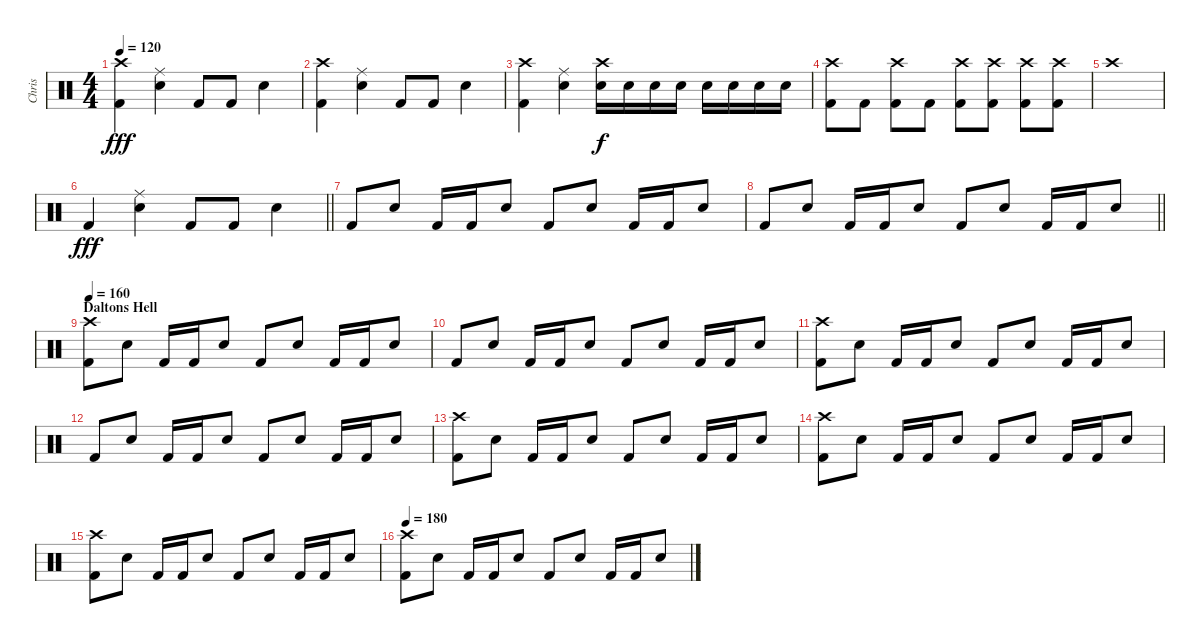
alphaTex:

\track ("Chris" "Chris") {instrument percussion}
\staff {score}
\articulation defaults
\ts (4 4)
\tempo 120
\clef neutral
\ks c
("Crash high (hit)" "Kick (hit) 2").4{dy fff} ("Ride (middle)" "Electric Snare (hit)").4 "Kick (hit) 2".8 "Kick (hit) 2".8 "Electric Snare (hit)".4 |
("Crash high (hit)" "Kick (hit) 2").4 ("Ride (middle)" "Electric Snare (hit)").4 "Kick (hit) 2".8 "Kick (hit) 2".8 "Electric Snare (hit)".4 |
("Crash high (hit)" "Kick (hit) 2").4 ("Ride (middle)" "Electric Snare (hit)").4 ("Electric Snare (hit)" "Crash high (hit)").16{dy f} "Electric Snare (hit)".16 "Electric Snare (hit)".16 "Electric Snare (hit)".16 "Electric Snare (hit)".16 "Electric Snare (hit)".16 "Electric Snare (hit)".16 "Electric Snare (hit)".16 |
("Kick (hit) 2" "Crash high (hit)").8 "Kick (hit) 2".8 ("Kick (hit) 2" "Crash high (hit)").8 "Kick (hit) 2".8 ("Kick (hit) 2" "Crash high (hit)").8 ("Kick (hit) 2" "Crash high (hit)").8 ("Kick (hit) 2" "Crash high (hit)").8 ("Kick (hit) 2" "Crash high (hit)").8 |
"Crash high (hit)".1 |
\barLineRight lightlight "Kick (hit) 2".4{dy fff}
("Ride (middle)" "Electric Snare (hit)").4 "Kick (hit) 2".8 "Kick (hit) 2".8 "Electric Snare (hit)".4 |
\section ("" "")
"Kick (hit) 2".8 "Electric Snare (hit)".8 "Kick (hit) 2".16 "Kick (hit) 2".16 "Electric Snare (hit)".8 "Kick (hit) 2".8 "Electric Snare (hit)".8 "Kick (hit) 2".16 "Kick (hit) 2".16 "Electric Snare (hit)".8 |
\barLineRight lightlight "Kick (hit) 2".8 "Electric Snare (hit)".8 "Kick (hit) 2".16 "Kick (hit) 2".16 "Electric Snare (hit)".8 "Kick (hit) 2".8 "Electric Snare (hit)".8 "Kick (hit) 2".16 "Kick (hit) 2".16 "Electric Snare (hit)".8
|
\section ("" "Daltons Hell")
\tempo 160
("Kick (hit) 2" "Crash high (hit)").8 "Electric Snare (hit)".8 "Kick (hit) 2".16 "Kick (hit) 2".16 "Electric Snare (hit)".8 "Kick (hit) 2".8 "Electric Snare (hit)".8 "Kick (hit) 2".16 "Kick (hit) 2".16 "Electric Snare (hit)".8 |
"Kick (hit) 2".8 "Electric Snare (hit)".8 "Kick (hit) 2".16 "Kick (hit) 2".16 "Electric Snare (hit)".8 "Kick (hit) 2".8 "Electric Snare (hit)".8 "Kick (hit) 2".16 "Kick (hit) 2".16 "Electric Snare (hit)".8 |
("Kick (hit) 2" "Crash high (hit)").8 "Electric Snare (hit)".8 "Kick (hit) 2".16 "Kick (hit) 2".16 "Electric Snare (hit)".8 "Kick (hit) 2".8 "Electric Snare (hit)".8 "Kick (hit) 2".16 "Kick (hit) 2".16 "Electric Snare (hit)".8 |
"Kick (hit) 2".8 "Electric Snare (hit)".8 "Kick (hit) 2".16 "Kick (hit) 2".16 "Electric Snare (hit)".8 "Kick (hit) 2".8 "Electric Snare (hit)".8 "Kick (hit) 2".16 "Kick (hit) 2".16 "Electric Snare (hit)".8 |
("Kick (hit) 2" "Crash high (hit)").8 "Electric Snare (hit)".8 "Kick (hit) 2".16 "Kick (hit) 2".16 "Electric Snare (hit)".8 "Kick (hit) 2".8 "Electric Snare (hit)".8 "Kick (hit) 2".16 "Kick (hit) 2".16 "Electric Snare (hit)".8 |
("Kick (hit) 2" "Crash high (hit)").8 "Electric Snare (hit)".8 "Kick (hit) 2".16 "Kick (hit) 2".16 "Electric Snare (hit)".8 "Kick (hit) 2".8 "Electric Snare (hit)".8 "Kick (hit) 2".16 "Kick (hit) 2".16 "Electric Snare (hit)".8 |
("Kick (hit) 2" "Crash high (hit)").8 "Electric Snare (hit)".8 "Kick (hit) 2".16 "Kick (hit) 2".16 "Electric Snare (hit)".8 "Kick (hit) 2".8 "Electric Snare (hit)".8 "Kick (hit) 2".16 "Kick (hit) 2".16 "Electric Snare (hit)".8 |
\tempo 180
("Kick (hit) 2" "Crash high (hit)").8 "Electric Snare (hit)".8 "Kick (hit) 2".16 "Kick (hit) 2".16 "Electric Snare (hit)".8 "Kick (hit) 2".8 "Electric Snare (hit)".8 "Kick (hit) 2".16 "Kick (hit) 2".16 "Electric Snare (hit)".8
